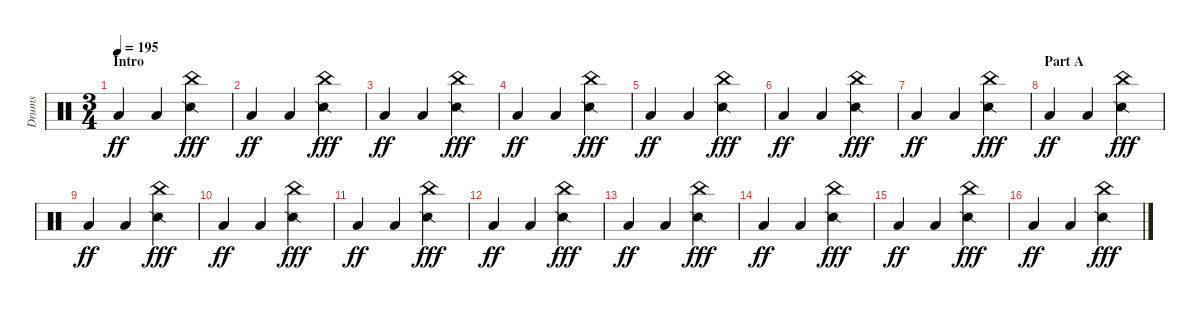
\track ("Drums" "Drums") {instrument percussion}
\staff {score}
\articulation defaults
\ts (3 4)
\section ("" "Intro")
\tempo 195
\clef neutral
\ks c "Low Floor Tom (hit)".4{dy ff} "Low Floor Tom (hit)".4
("Snare (side stick) 2" "China (hit)").4{dy fff} |
"Low Floor Tom (hit)".4{dy ff} "Low Floor Tom (hit)".4 ("Snare (side stick) 2" "China (hit)").4{dy fff} |
"Low Floor Tom (hit)".4{dy ff} "Low Floor Tom (hit)".4 ("Snare (side stick) 2" "China (hit)").4{dy fff} |
"Low Floor Tom (hit)".4{dy ff} "Low Floor Tom (hit)".4 ("Snare (side stick) 2" "China (hit)").4{dy fff} |
"Low Floor Tom (hit)".4{dy ff} "Low Floor Tom (hit)".4 ("Snare (side stick) 2" "China (hit)").4{dy fff} |
"Low Floor Tom (hit)".4{dy ff} "Low Floor Tom (hit)".4 ("Snare (side stick) 2" "China (hit)").4{dy fff} |
"Low Floor Tom (hit)".4{dy ff} "Low Floor Tom (hit)".4 ("Snare (side stick) 2" "China (hit)").4{dy fff} |
\section ("" "Part A")
"Low Floor Tom (hit)".4{dy ff} "Low Floor Tom (hit)".4 ("Snare (side stick) 2" "China (hit)").4{dy fff} |
"Low Floor Tom (hit)".4{dy ff} "Low Floor Tom (hit)".4 ("Snare (side stick) 2" "China (hit)").4{dy fff} |
"Low Floor Tom (hit)".4{dy ff} "Low Floor Tom (hit)".4 ("Snare (side stick) 2" "China (hit)").4{dy fff} |
"Low Floor Tom (hit)".4{dy ff} "Low Floor Tom (hit)".4 ("Snare (side stick) 2" "China (hit)").4{dy fff} |
"Low Floor Tom (hit)".4{dy ff} "Low Floor Tom (hit)".4 ("Snare (side stick) 2" "China (hit)").4{dy fff} |
"Low Floor Tom (hit)".4{dy ff} "Low Floor Tom (hit)".4 ("Snare (side stick) 2" "China (hit)").4{dy fff} |
"Low Floor Tom (hit)".4{dy ff} "Low Floor Tom (hit)".4 ("Snare (side stick) 2" "China (hit)").4{dy fff} |
"Low Floor Tom (hit)".4{dy ff} "Low Floor Tom (hit)".4 ("Snare (side stick) 2" "China (hit)").4{dy fff} |
"Low Floor Tom (hit)".4{dy ff} "Low Floor Tom (hit)".4 ("Snare (side stick) 2" "China (hit)").4{dy fff}
